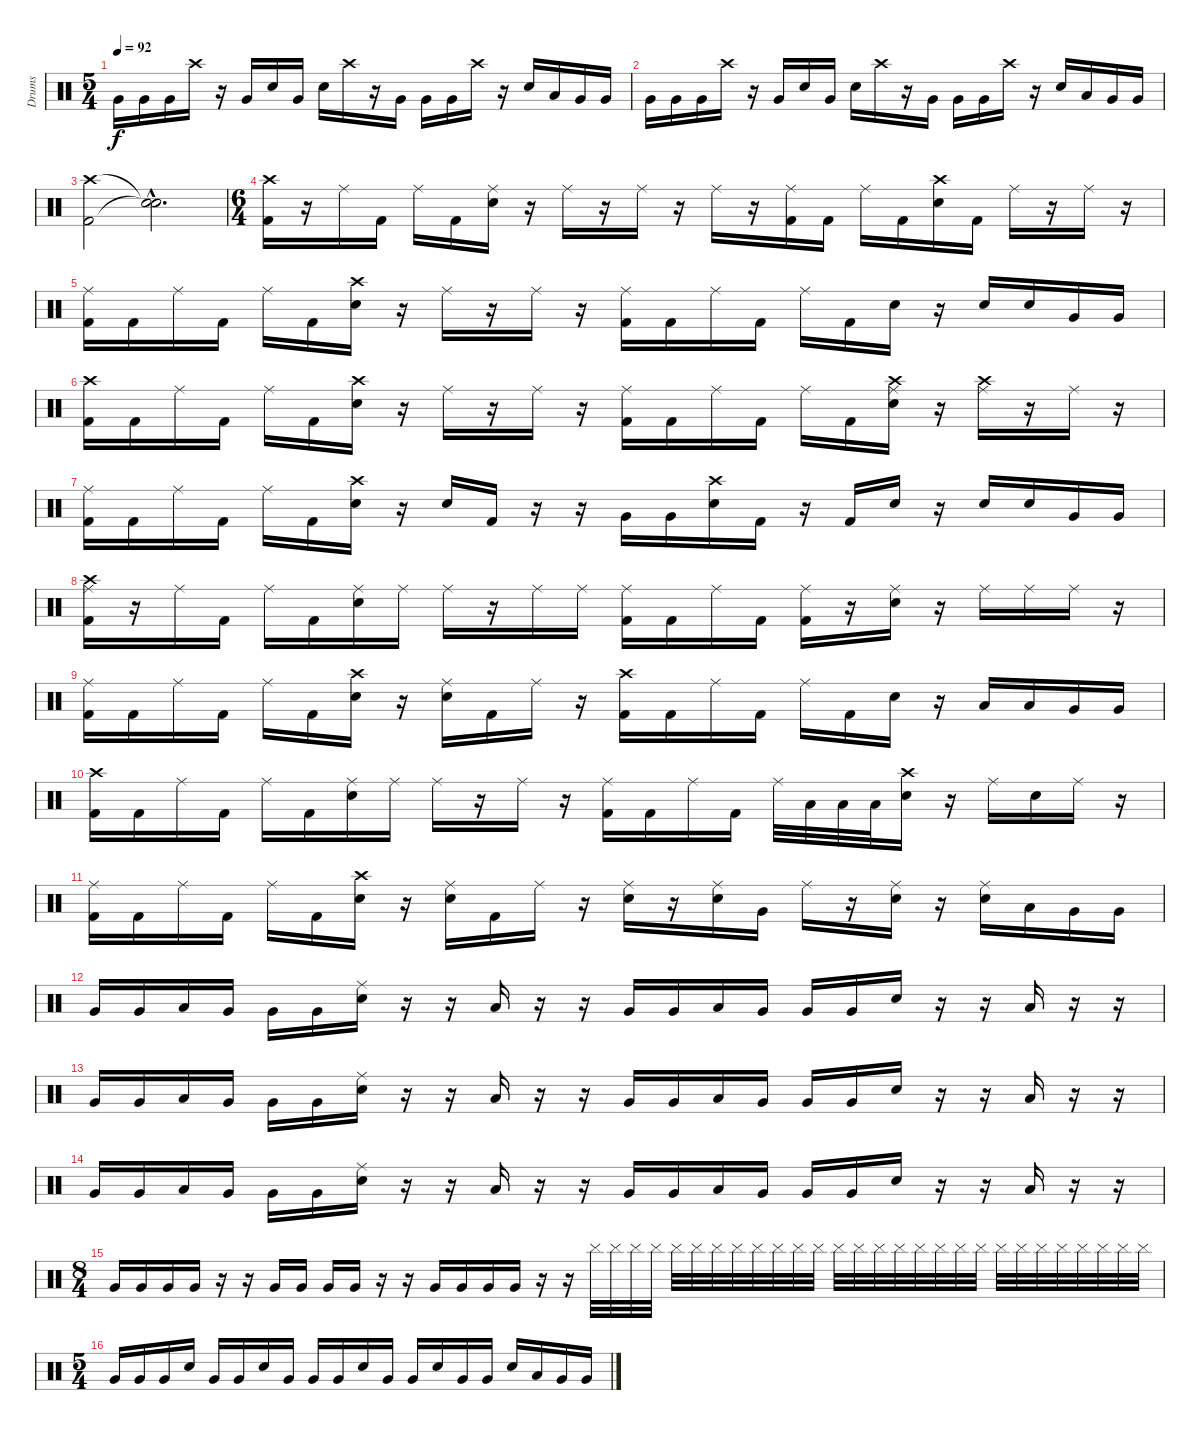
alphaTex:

\track ("Drums               " "Drums     ") {instrument percussion}
\staff {score}
\articulation defaults
\ts (5 4)
\tempo 92
\clef neutral
\ks c "Very Low Tom (hit)".16{dy f} "Very Low Tom (hit)".16 "Very Low Tom (hit)".16 "Crash high (hit)".16
r.16 "Very Low Tom (hit)".16 "Electric Snare (hit)".16 "Very Low Tom (hit)".16 "Electric Snare (hit)".16 "Crash high (hit)".16 r.16 "Very Low Tom (hit)".16 "Very Low Tom (hit)".16 "Very Low Tom (hit)".16 "Crash high (hit)".16 r.16 "Electric Snare (hit)".16 "Low Floor Tom (hit)".16 "Very Low Tom (hit)".16 "Very Low Tom (hit)".16 |
"Very Low Tom (hit)".16 "Very Low Tom (hit)".16 "Very Low Tom (hit)".16 "Crash high (hit)".16 r.16 "Very Low Tom (hit)".16 "Electric Snare (hit)".16 "Very Low Tom (hit)".16 "Electric Snare (hit)".16 "Crash high (hit)".16 r.16 "Very Low Tom (hit)".16 "Very Low Tom (hit)".16 "Very Low Tom (hit)".16 "Crash high (hit)".16 r.16 "Electric Snare (hit)".16 "Low Floor Tom (hit)".16 "Very Low Tom (hit)".16 "Very Low Tom (hit)".16 |
("Crash high (hit)" "Kick (hit) 2").2 ("Snare (hit)"{hac t} "Snare (hit)"{hac t}).2{d} |
\ts (6 4)
("Crash high (hit)" "Kick (hit) 2").16 r.16 "Ride (middle)".16 "Kick (hit) 2".16 "Ride (middle)".16 "Kick (hit) 2".16 ("Ride (middle)" "Electric Snare (hit)").16 r.16 "Ride (middle)".16 r.16 "Ride (middle)".16 r.16 "Ride (middle)".16 r.16 ("Ride (middle)" "Kick (hit) 2").16 "Kick (hit) 2".16 "Ride (middle)".16 "Kick (hit) 2".16 ("Crash high (hit)" "Electric Snare (hit)").16 "Kick (hit) 2".16 "Ride (middle)".16 r.16 "Ride (middle)".16 r.16 |
("Ride (middle)" "Kick (hit) 2").16 "Kick (hit) 2".16 "Ride (middle)".16 "Kick (hit) 2".16 "Ride (middle)".16 "Kick (hit) 2".16 ("Crash high (hit)" "Electric Snare (hit)").16 r.16 "Ride (middle)".16 r.16 "Ride (middle)".16 r.16 ("Ride (middle)" "Kick (hit) 2").16 "Kick (hit) 2".16 "Ride (middle)".16 "Kick (hit) 2".16 "Ride (middle)".16 "Kick (hit) 2".16 "Electric Snare (hit)".16 r.16 "Electric Snare (hit)".16 "Electric Snare (hit)".16 "Very Low Tom (hit)".16 "Very Low Tom (hit)".16 |
("Crash high (hit)" "Kick (hit) 2").16 "Kick (hit) 2".16 "Ride (middle)".16 "Kick (hit) 2".16 "Ride (middle)".16 "Kick (hit) 2".16 ("Crash high (hit)" "Electric Snare (hit)").16 r.16 "Ride (middle)".16 r.16 "Ride (middle)".16 r.16 ("Ride (middle)" "Kick (hit) 2").16 "Kick (hit) 2".16 "Ride (middle)".16 "Kick (hit) 2".16 "Ride (middle)".16 "Kick (hit) 2".16 ("Crash high (hit)" "Ride (middle)" "Electric Snare (hit)").16 r.16 ("Crash high (hit)" "Ride (middle)").16 r.16 "Ride (middle)".16 r.16 |
("Ride (middle)" "Kick (hit) 2").16 "Kick (hit) 2".16 "Ride (middle)".16 "Kick (hit) 2".16 "Ride (middle)".16 "Kick (hit) 2".16 ("Crash high (hit)" "Electric Snare (hit)").16 r.16 "Electric Snare (hit)".16 "Kick (hit) 2".16 r.16 r.16 "Very Low Tom (hit)".16 "Very Low Tom (hit)".16 ("Crash high (hit)" "Electric Snare (hit)").16 "Kick (hit) 2".16 r.16 "Kick (hit) 2".16 "Electric Snare (hit)".16 r.16 "Electric Snare (hit)".16 "Electric Snare (hit)".16 "Very Low Tom (hit)".16 "Very Low Tom (hit)".16 |
("Crash high (hit)" "Ride (middle)" "Kick (hit) 2").16 r.16 "Ride (middle)".16 "Kick (hit) 2".16 "Ride (middle)".16 "Kick (hit) 2".16 ("Ride (middle)" "Electric Snare (hit)").16 "Ride (middle)".16 "Ride (middle)".16 r.16 "Ride (middle)".16 "Ride (middle)".16 ("Ride (middle)" "Kick (hit) 2").16 "Kick (hit) 2".16 "Ride (middle)".16 "Kick (hit) 2".16 ("Ride (middle)" "Kick (hit) 2").16 r.16 ("Ride (middle)" "Electric Snare (hit)").16 r.16 "Ride (middle)".16 "Ride (middle)".16 "Ride (middle)".16 r.16 |
("Ride (middle)" "Kick (hit) 2").16 "Kick (hit) 2".16 "Ride (middle)".16 "Kick (hit) 2".16 "Ride (middle)".16 "Kick (hit) 2".16 ("Crash high (hit)" "Electric Snare (hit)").16 r.16 ("Ride (middle)" "Electric Snare (hit)").16 "Kick (hit) 2".16 "Ride (middle)".16 r.16 ("Crash high (hit)" "Kick (hit) 2").16 "Kick (hit) 2".16 "Ride (middle)".16 "Kick (hit) 2".16 "Ride (middle)".16 "Kick (hit) 2".16 "Electric Snare (hit)".16 r.16 "Low Tom (hit)".16 "Low Tom (hit)".16 "Very Low Tom (hit)".16 "Very Low Tom (hit)".16 |
("Crash high (hit)" "Kick (hit) 2").16 "Kick (hit) 2".16 "Ride (middle)".16 "Kick (hit) 2".16 "Ride (middle)".16 "Kick (hit) 2".16 ("Ride (middle)" "Electric Snare (hit)").16 "Ride (middle)".16 "Ride (middle)".16 r.16 "Ride (middle)".16 r.16 ("Ride (middle)" "Kick (hit) 2").16 "Kick (hit) 2".16 "Ride (middle)".16 "Kick (hit) 2".16 "Ride (middle)".32 "Low Tom (hit)".32 "Low Tom (hit)".32 "Low Tom (hit)".32 ("Crash high (hit)" "Electric Snare (hit)").16 r.16 "Ride (middle)".16 "Electric Snare (hit)".16 "Ride (middle)".16 r.16 |
("Ride (middle)" "Kick (hit) 2").16 "Kick (hit) 2".16 "Ride (middle)".16 "Kick (hit) 2".16 "Ride (middle)".16 "Kick (hit) 2".16 ("Crash high (hit)" "Electric Snare (hit)").16 r.16 ("Ride (middle)" "Electric Snare (hit)").16 "Kick (hit) 2".16 "Ride (middle)".16 r.16 ("Ride (middle)" "Electric Snare (hit)").16 r.16 ("Ride (middle)" "Electric Snare (hit)").16 "Very Low Tom (hit)".16 "Ride (middle)".16 r.16 ("Ride (middle)" "Electric Snare (hit)").16 r.16 ("Ride (middle)" "Electric Snare (hit)").16 "Low Tom (hit)".16 "Very Low Tom (hit)".16 "Very Low Tom (hit)".16 |
"Very Low Tom (hit)".16 "Very Low Tom (hit)".16 "Low Tom (hit)".16 "Very Low Tom (hit)".16 "Very Low Tom (hit)".16 "Very Low Tom (hit)".16 ("Ride (middle)" "Electric Snare (hit)").16 r.16 r.16 "Low Floor Tom (hit)".16 r.16 r.16 "Very Low Tom (hit)".16 "Very Low Tom (hit)".16 "Low Tom (hit)".16 "Very Low Tom (hit)".16 "Very Low Tom (hit)".16 "Very Low Tom (hit)".16 "Electric Snare (hit)".16 r.16 r.16 "Low Floor Tom (hit)".16 r.16 r.16 |
"Very Low Tom (hit)".16 "Very Low Tom (hit)".16 "Low Tom (hit)".16 "Very Low Tom (hit)".16 "Very Low Tom (hit)".16 "Very Low Tom (hit)".16 ("Ride (middle)" "Electric Snare (hit)").16 r.16 r.16 "Low Floor Tom (hit)".16 r.16 r.16 "Very Low Tom (hit)".16 "Very Low Tom (hit)".16 "Low Tom (hit)".16 "Very Low Tom (hit)".16 "Very Low Tom (hit)".16 "Very Low Tom (hit)".16 "Electric Snare (hit)".16 r.16 r.16 "Low Floor Tom (hit)".16 r.16 r.16 |
"Very Low Tom (hit)".16 "Very Low Tom (hit)".16 "Low Tom (hit)".16 "Very Low Tom (hit)".16 "Very Low Tom (hit)".16 "Very Low Tom (hit)".16 ("Ride (middle)" "Electric Snare (hit)").16 r.16 r.16 "Low Floor Tom (hit)".16 r.16 r.16 "Very Low Tom (hit)".16 "Very Low Tom (hit)".16 "Low Tom (hit)".16 "Very Low Tom (hit)".16 "Very Low Tom (hit)".16 "Very Low Tom (hit)".16 "Electric Snare (hit)".16 r.16 r.16 "Low Floor Tom (hit)".16 r.16 r.16 |
\ts (8 4)
"Very Low Tom (hit)".16 "Very Low Tom (hit)".16 "Very Low Tom (hit)".16 "Very Low Tom (hit)".16 r.16 r.16 "Very Low Tom (hit)".16 "Very Low Tom (hit)".16 "Very Low Tom (hit)".16 "Very Low Tom (hit)".16 r.16 r.16 "Very Low Tom (hit)".16 "Very Low Tom (hit)".16 "Very Low Tom (hit)".16 "Very Low Tom (hit)".16 r.16 r.16 "Cymbal (hit)".32 "Cymbal (hit)".32 "Cymbal (hit)".32 "Cymbal (hit)".32 "Cymbal (hit)".32 "Cymbal (hit)".32 "Cymbal (hit)".32 "Cymbal (hit)".32 "Cymbal (hit)".32 "Cymbal (hit)".32 "Cymbal (hit)".32 "Cymbal (hit)".32 "Cymbal (hit)".32 "Cymbal (hit)".32 "Cymbal (hit)".32 "Cymbal (hit)".32 "Cymbal (hit)".32 "Cymbal (hit)".32 "Cymbal (hit)".32 "Cymbal (hit)".32 "Cymbal (hit)".32 "Cymbal (hit)".32 "Cymbal (hit)".32 "Cymbal (hit)".32 "Cymbal (hit)".32 "Cymbal (hit)".32 "Cymbal (hit)".32 "Cymbal (hit)".32 |
\ts (5 4)
"Very Low Tom (hit)".16 "Very Low Tom (hit)".16 "Very Low Tom (hit)".16 "Electric Snare (hit)".16 "Very Low Tom (hit)".16 "Very Low Tom (hit)".16 "Electric Snare (hit)".16 "Very Low Tom (hit)".16 "Very Low Tom (hit)".16 "Very Low Tom (hit)".16 "Electric Snare (hit)".16 "Very Low Tom (hit)".16 "Very Low Tom (hit)".16 "Electric Snare (hit)".16 "Very Low Tom (hit)".16 "Very Low Tom (hit)".16 "Electric Snare (hit)".16 "Low Tom (hit)".16 "Very Low Tom (hit)".16 "Very Low Tom (hit)".16
